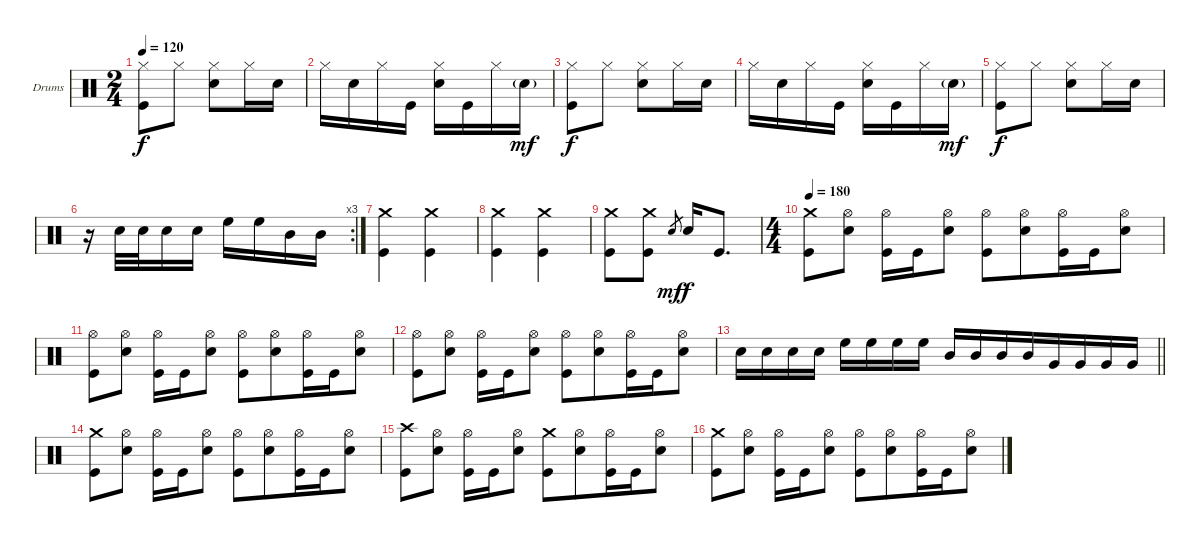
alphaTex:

\bracketExtendMode groupsimilarinstruments
\firstSystemTrackNameOrientation horizontal
\otherSystemsTrackNameOrientation horizontal
\track ("Drumkit" "Drums") {instrument percussion}
\staff {score}
\articulation defaults
\ts (2 4)
\tempo 120
\clef neutral
\ks c
("Hi-Hat (closed)" "Kick (hit)").8{dy f} "Hi-Hat (closed)".8 ("Hi-Hat (closed)" "Snare (hit) 2").8 "Hi-Hat (closed)".16 "Snare (hit) 2".16 |
"Hi-Hat (closed)".16 "Snare (hit) 2".16 "Hi-Hat (closed)".16 "Kick (hit)".16 ("Hi-Hat (closed)" "Snare (hit) 2").16 "Kick (hit)".16 "Hi-Hat (closed)".16 "Snare (hit) 2"{g}.16{dy mf} |
("Hi-Hat (closed)" "Kick (hit)").8{dy f} "Hi-Hat (closed)".8 ("Hi-Hat (closed)" "Snare (hit) 2").8 "Hi-Hat (closed)".16 "Snare (hit) 2".16 |
"Hi-Hat (closed)".16 "Snare (hit) 2".16 "Hi-Hat (closed)".16 "Kick (hit)".16 ("Hi-Hat (closed)" "Snare (hit) 2").16 "Kick (hit)".16 "Hi-Hat (closed)".16 "Snare (hit) 2"{g}.16{dy mf} |
("Hi-Hat (closed)" "Kick (hit)").8{dy f} "Hi-Hat (closed)".8 ("Hi-Hat (closed)" "Snare (hit) 2").8 "Hi-Hat (closed)".16 "Snare (hit) 2".16 |
\rc 3
r.16 "Snare (hit) 2".32 "Snare (hit) 2".32 "Snare (hit) 2".16 "Snare (hit) 2".16 "High Floor Tom (hit)".16 "High Floor Tom (hit)".16 "Mid Tom (hit)".16 "Mid Tom (hit)".16 |
("Crash medium (hit)" "Kick (hit)").4 ("Crash medium (hit)" "Kick (hit)").4 |
("Crash medium (hit)" "Kick (hit)").4 ("Crash medium (hit)" "Kick (hit)").4 |
("Crash medium (hit)" "Kick (hit)").8 ("Crash medium (hit)" "Kick (hit)").8 "Snare (hit) 2".8{gr dy mf} "Snare (hit) 2".16{dy f} "Kick (hit)".8{d} |
\ts (4 4)
\beaming (8 2 2 4)
\tempo 180
("Crash medium (hit)" "Kick (hit)").8 ("Hi-Hat (open)" "Snare (hit) 2").8 ("Hi-Hat (open)" "Kick (hit)").16 "Kick (hit)".16 ("Hi-Hat (open)" "Snare (hit) 2").8 ("Hi-Hat (open)" "Kick (hit)").8 ("Hi-Hat (open)" "Snare (hit) 2").8 ("Hi-Hat (open)" "Kick (hit)").16 "Kick (hit)".16 ("Hi-Hat (open)" "Snare (hit) 2").8 |
("Hi-Hat (open)" "Kick (hit)").8 ("Hi-Hat (open)" "Snare (hit) 2").8 ("Hi-Hat (open)" "Kick (hit)").16 "Kick (hit)".16 ("Hi-Hat (open)" "Snare (hit) 2").8 ("Hi-Hat (open)" "Kick (hit)").8 ("Hi-Hat (open)" "Snare (hit) 2").8 ("Hi-Hat (open)" "Kick (hit)").16 "Kick (hit)".16 ("Hi-Hat (open)" "Snare (hit) 2").8 |
("Hi-Hat (open)" "Kick (hit)").8 ("Hi-Hat (open)" "Snare (hit) 2").8 ("Hi-Hat (open)" "Kick (hit)").16 "Kick (hit)".16 ("Hi-Hat (open)" "Snare (hit) 2").8 ("Hi-Hat (open)" "Kick (hit)").8 ("Hi-Hat (open)" "Snare (hit) 2").8 ("Hi-Hat (open)" "Kick (hit)").16 "Kick (hit)".16 ("Hi-Hat (open)" "Snare (hit) 2").8 |
\barLineRight lightlight "Snare (hit) 2".16 "Snare (hit) 2".16 "Snare (hit) 2".16 "Snare (hit) 2".16 "High Floor Tom (hit)".16 "High Floor Tom (hit)".16 "High Floor Tom (hit)".16 "High Floor Tom (hit)".16 "Mid Tom (hit)".16 "Mid Tom (hit)".16 "Mid Tom (hit)".16 "Mid Tom (hit)".16 "Very Low Tom (hit)".16 "Very Low Tom (hit)".16 "Very Low Tom (hit)".16 "Very Low Tom (hit)".16
|
("Crash medium (hit)" "Kick (hit)").8 ("Hi-Hat (open)" "Snare (hit) 2").8 ("Hi-Hat (open)" "Kick (hit)").16 "Kick (hit)".16 ("Hi-Hat (open)" "Snare (hit) 2").8 ("Hi-Hat (open)" "Kick (hit)").8 ("Hi-Hat (open)" "Snare (hit) 2").8 ("Hi-Hat (open)" "Kick (hit)").16 "Kick (hit)".16 ("Hi-Hat (open)" "Snare (hit) 2").8 |
("Crash high (hit)" "Kick (hit)").8 ("Hi-Hat (open)" "Snare (hit) 2").8 ("Hi-Hat (open)" "Kick (hit)").16 "Kick (hit)".16 ("Hi-Hat (open)" "Snare (hit) 2").8 ("Crash medium (hit)" "Kick (hit)").8 ("Hi-Hat (open)" "Snare (hit) 2").8 ("Hi-Hat (open)" "Kick (hit)").16 "Kick (hit)".16 ("Hi-Hat (open)" "Snare (hit) 2").8 |
("Crash medium (hit)" "Kick (hit)").8 ("Hi-Hat (open)" "Snare (hit) 2").8 ("Hi-Hat (open)" "Kick (hit)").16 "Kick (hit)".16 ("Hi-Hat (open)" "Snare (hit) 2").8 ("Hi-Hat (open)" "Kick (hit)").8 ("Hi-Hat (open)" "Snare (hit) 2").8 ("Hi-Hat (open)" "Kick (hit)").16 "Kick (hit)".16 ("Hi-Hat (open)" "Snare (hit) 2").8
